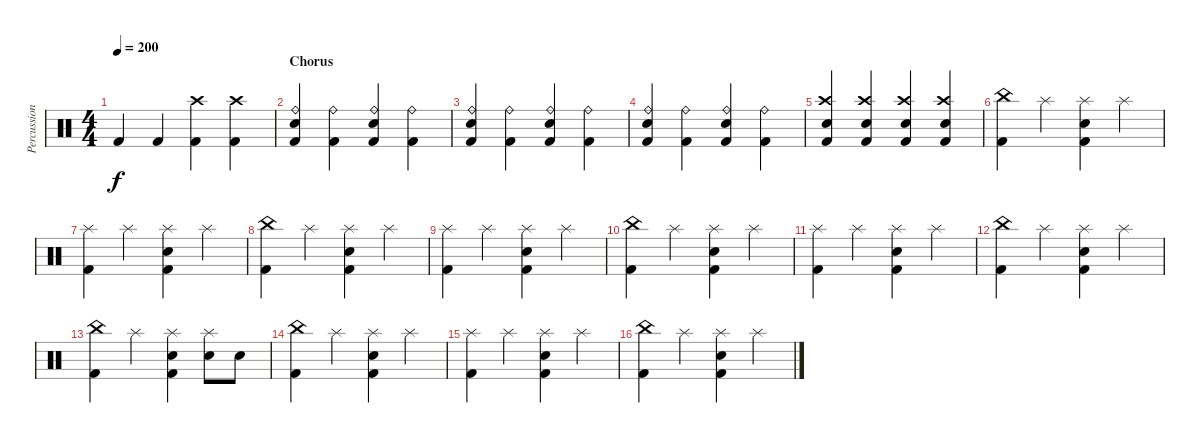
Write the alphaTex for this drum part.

\track ("Percussion" "Percussion") {instrument percussion}
\staff {score}
\articulation defaults
\ts (4 4)
\tempo 200
\clef neutral
\ks c "Kick (hit) 2".4{dy f} "Kick (hit) 2".4
("Crash high (hit)" "Kick (hit) 2").4 ("Crash high (hit)" "Kick (hit) 2").4 |
\section ("" "Chorus")
("Ride (bell)" "Snare (hit) 2" "Kick (hit) 2").4 ("Ride (bell)" "Kick (hit) 2").4 ("Ride (bell)" "Snare (hit) 2" "Kick (hit) 2").4 ("Ride (bell)" "Kick (hit) 2").4 |
("Ride (bell)" "Snare (hit) 2" "Kick (hit) 2").4 ("Ride (bell)" "Kick (hit) 2").4 ("Ride (bell)" "Snare (hit) 2" "Kick (hit) 2").4 ("Ride (bell)" "Kick (hit) 2").4 |
("Ride (bell)" "Snare (hit) 2" "Kick (hit) 2").4 ("Ride (bell)" "Kick (hit) 2").4 ("Ride (bell)" "Snare (hit) 2" "Kick (hit) 2").4 ("Ride (bell)" "Kick (hit) 2").4 |
("Crash high (hit)" "Snare (hit) 2" "Kick (hit) 2").4 ("Crash high (hit)" "Snare (hit) 2" "Kick (hit) 2").4 ("Crash high (hit)" "Snare (hit) 2" "Kick (hit) 2").4 ("Crash high (hit)" "Snare (hit) 2" "Kick (hit) 2").4 |
("China (hit)" "Kick (hit) 2").4 "Splash (hit)".4 ("Splash (hit)" "Snare (hit) 2" "Kick (hit) 2").4 "Splash (hit)".4 |
("Splash (hit)" "Kick (hit) 2").4 "Splash (hit)".4 ("Splash (hit)" "Snare (hit) 2" "Kick (hit) 2").4 "Splash (hit)".4 |
("China (hit)" "Kick (hit) 2").4 "Splash (hit)".4 ("Splash (hit)" "Snare (hit) 2" "Kick (hit) 2").4 "Splash (hit)".4 |
("Splash (hit)" "Kick (hit) 2").4 "Splash (hit)".4 ("Splash (hit)" "Snare (hit) 2" "Kick (hit) 2").4 "Splash (hit)".4 |
("China (hit)" "Kick (hit) 2").4 "Splash (hit)".4 ("Splash (hit)" "Snare (hit) 2" "Kick (hit) 2").4 "Splash (hit)".4 |
("Splash (hit)" "Kick (hit) 2").4 "Splash (hit)".4 ("Splash (hit)" "Snare (hit) 2" "Kick (hit) 2").4 "Splash (hit)".4 |
("China (hit)" "Kick (hit) 2").4 "Splash (hit)".4 ("Splash (hit)" "Snare (hit) 2" "Kick (hit) 2").4 "Splash (hit)".4 |
("China (hit)" "Kick (hit) 2").4 "Splash (hit)".4 ("Splash (hit)" "Snare (hit) 2" "Kick (hit) 2").4 ("Splash (hit)" "Snare (hit) 2").8 "Snare (hit) 2".8 |
("China (hit)" "Kick (hit) 2").4 "Splash (hit)".4 ("Splash (hit)" "Snare (hit) 2" "Kick (hit) 2").4 "Splash (hit)".4 |
("Splash (hit)" "Kick (hit) 2").4 "Splash (hit)".4 ("Splash (hit)" "Snare (hit) 2" "Kick (hit) 2").4 "Splash (hit)".4 |
("China (hit)" "Kick (hit) 2").4 "Splash (hit)".4 ("Splash (hit)" "Snare (hit) 2" "Kick (hit) 2").4 "Splash (hit)".4
